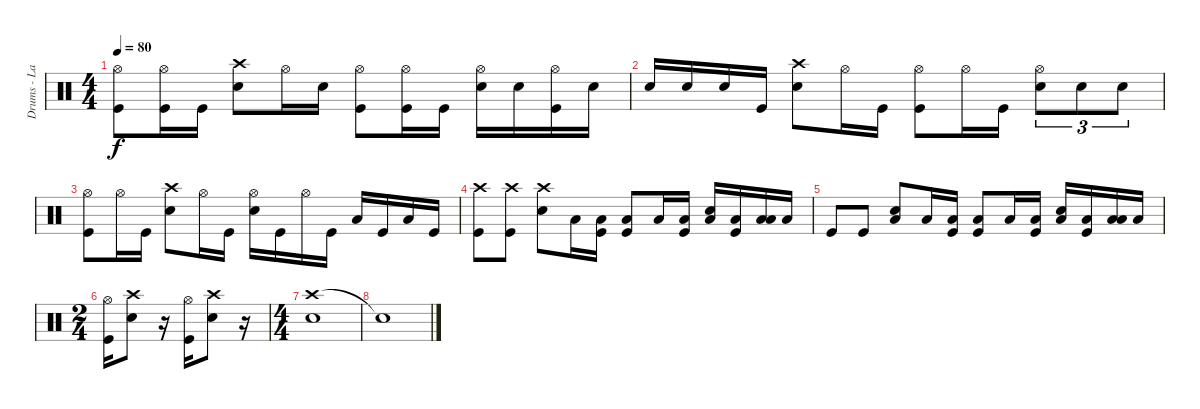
\track ("Drums - Lars" "Drums - La") {instrument percussion}
\staff {score}
\articulation defaults
\ts (4 4)
\tempo 80
\clef neutral
\ks c
("Hi-Hat (open)" "Kick (hit)").8{dy f} ("Hi-Hat (open)" "Kick (hit)").16 "Kick (hit)".16 ("Crash high (hit)" "Snare (hit) 2").8 "Hi-Hat (open)".16 "Snare (hit) 2".16 ("Hi-Hat (open)" "Kick (hit)").8 ("Hi-Hat (open)" "Kick (hit)").16 "Kick (hit)".16 ("Hi-Hat (open)" "Snare (hit) 2").16 "Snare (hit) 2".16 ("Hi-Hat (open)" "Kick (hit)").16 "Snare (hit) 2".16 |
"Snare (hit) 2".16 "Snare (hit) 2".16 "Snare (hit) 2".16 "Kick (hit)".16 ("Crash high (hit)" "Snare (hit) 2").8 "Hi-Hat (open)".16 "Kick (hit)".16 ("Hi-Hat (open)" "Kick (hit)").8 "Hi-Hat (open)".16 "Kick (hit)".16 ("Hi-Hat (open)" "Snare (hit) 2").8{tu (3 2)} "Snare (hit) 2".8{tu (3 2)} "Snare (hit) 2".8{tu (3 2)} |
("Hi-Hat (open)" "Kick (hit)").8 "Hi-Hat (open)".16 "Kick (hit)".16 ("Crash high (hit)" "Snare (hit) 2").8 "Hi-Hat (open)".16 "Kick (hit)".16 ("Hi-Hat (open)" "Snare (hit) 2").16 "Kick (hit)".16 "Hi-Hat (open)".16 "Kick (hit)".16 "Low Floor Tom (hit)".16 "Kick (hit)".16 "Low Floor Tom (hit)".16 "Kick (hit)".16 |
("Crash high (hit)" "Kick (hit)").8 ("Crash high (hit)" "Kick (hit)").8 ("Crash high (hit)" "Snare (hit) 2").8 "Low Floor Tom (hit)".16 ("Low Floor Tom (hit)" "Kick (hit)").16 ("Low Floor Tom (hit)" "Kick (hit)").8 "Low Floor Tom (hit)".16 ("Low Floor Tom (hit)" "Kick (hit)").16 ("Snare (hit) 2" "Low Floor Tom (hit)").16 ("Low Floor Tom (hit)" "Kick (hit)").16 ("Low Tom (hit)" "Low Floor Tom (hit)").16 "Low Floor Tom (hit)".16 |
"Kick (hit)".8 "Kick (hit)".8 ("Snare (hit) 2" "Low Floor Tom (hit)").8 "Low Floor Tom (hit)".16 ("Low Floor Tom (hit)" "Kick (hit)").16 ("Low Floor Tom (hit)" "Kick (hit)").8 "Low Floor Tom (hit)".16 ("Low Floor Tom (hit)" "Kick (hit)").16 ("Snare (hit) 2" "Low Floor Tom (hit)").16 ("Low Floor Tom (hit)" "Kick (hit)").16 ("Low Tom (hit)" "Low Floor Tom (hit)").16 "Low Floor Tom (hit)".16 |
\ts (2 4)
("Hi-Hat (open)" "Kick (hit)").16 ("Crash high (hit)" "Snare (hit) 2").8 r.16 ("Hi-Hat (open)" "Kick (hit)").16 ("Crash high (hit)" "Snare (hit) 2").8 r.16 |
\ts (4 4)
("Crash high (hit)" "Snare (hit) 2").1 |
"Snare (hit)"{t}.1
